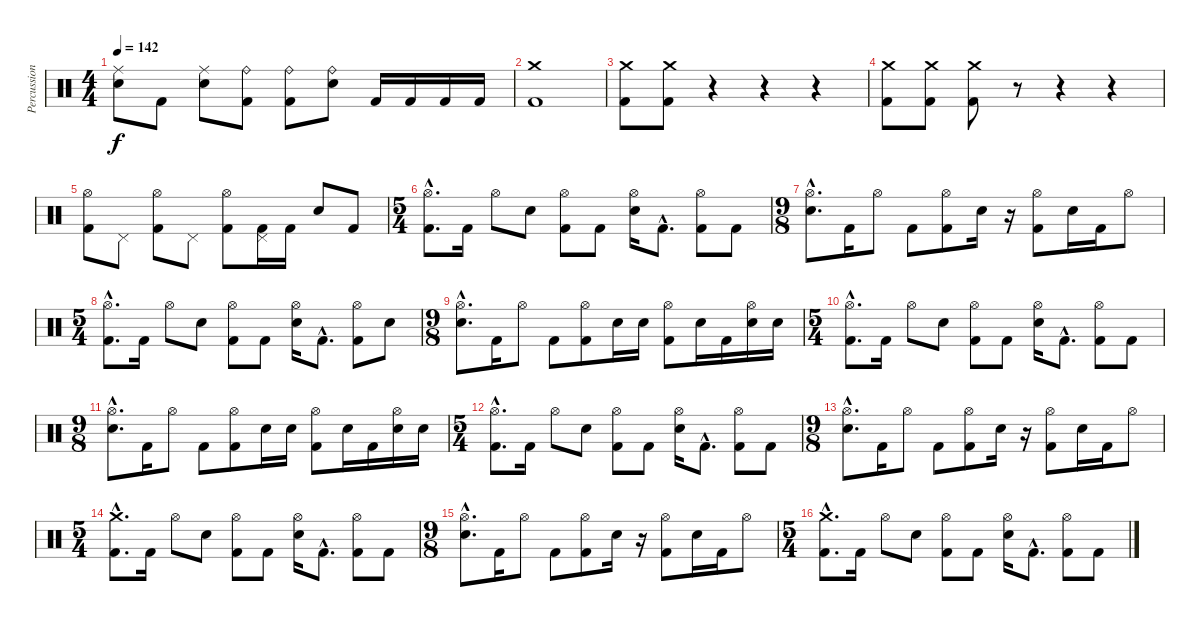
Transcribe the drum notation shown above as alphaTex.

\track ("Percussion" "Percussion") {instrument percussion}
\staff {score}
\articulation defaults
\ts (4 4)
\tempo 142
\clef neutral
\ks c
("Ride (middle)" "Electric Snare (hit)").8{dy f} "Kick (hit) 2".8 ("Ride (middle)" "Electric Snare (hit)").8 ("Ride (bell)" "Kick (hit) 2").8 ("Ride (bell)" "Kick (hit) 2").8 ("Ride (bell)" "Electric Snare (hit)").8 "Kick (hit) 2".16 "Kick (hit) 2".16 "Kick (hit) 2".16 "Kick (hit) 2".16 |
("Crash medium (hit)" "Kick (hit) 2").1 |
("Crash medium (hit)" "Kick (hit) 2").8 ("Crash medium (hit)" "Kick (hit) 2").8 r.4 r.4 r.4 |
("Crash medium (hit)" "Kick (hit) 2").8 ("Crash medium (hit)" "Kick (hit) 2").8 ("Crash medium (hit)" "Kick (hit) 2").8 r.8 r.4 r.4 |
("Hi-Hat (open)" "Kick (hit) 2").8 "Pedal Hi-Hat (hit)".8 ("Hi-Hat (open)" "Kick (hit) 2").8 "Pedal Hi-Hat (hit)".8 ("Hi-Hat (open)" "Kick (hit) 2").8 ("Pedal Hi-Hat (hit)" "Kick (hit) 2").16 "Kick (hit) 2".16 "Electric Snare (hit)".8 "Kick (hit) 2".8 |
\ts (5 4)
("Hi-Hat (open)"{hac} "Kick (hit) 2"{hac}).8{d} "Kick (hit) 2".16 "Hi-Hat (open)".8 "Electric Snare (hit)".8 ("Hi-Hat (open)" "Kick (hit) 2").8 "Kick (hit) 2".8 ("Hi-Hat (open)" "Electric Snare (hit)").16 "Kick (hit) 2"{hac}.8{d} ("Hi-Hat (open)" "Kick (hit) 2").8 "Kick (hit) 2".8 |
\ts (9 8)
("Hi-Hat (open)"{hac} "Electric Snare (hit)"{hac}).8{d} "Kick (hit) 2".16 "Hi-Hat (open)".8 "Kick (hit) 2".8 ("Hi-Hat (open)" "Kick (hit) 2").8 "Electric Snare (hit)".16 r.16 ("Hi-Hat (open)" "Kick (hit) 2").8 "Electric Snare (hit)".16 "Kick (hit) 2".16 "Hi-Hat (open)".8 |
\ts (5 4)
("Hi-Hat (open)"{hac} "Kick (hit) 2"{hac}).8{d} "Kick (hit) 2".16 "Hi-Hat (open)".8 "Electric Snare (hit)".8 ("Hi-Hat (open)" "Kick (hit) 2").8 "Kick (hit) 2".8 ("Hi-Hat (open)" "Electric Snare (hit)").16 "Kick (hit) 2"{hac}.8{d} ("Hi-Hat (open)" "Kick (hit) 2").8 "Electric Snare (hit)".8 |
\ts (9 8)
("Hi-Hat (open)"{hac} "Electric Snare (hit)"{hac}).8{d} "Kick (hit) 2".16 "Hi-Hat (open)".8 "Kick (hit) 2".8 ("Hi-Hat (open)" "Kick (hit) 2").8 "Electric Snare (hit)".16 "Electric Snare (hit)".16 ("Hi-Hat (open)" "Kick (hit) 2").8 "Electric Snare (hit)".16 "Kick (hit) 2".16 ("Hi-Hat (open)" "Electric Snare (hit)").16 "Electric Snare (hit)".16 |
\ts (5 4)
("Hi-Hat (open)"{hac} "Kick (hit) 2"{hac}).8{d} "Kick (hit) 2".16 "Hi-Hat (open)".8 "Electric Snare (hit)".8 ("Hi-Hat (open)" "Kick (hit) 2").8 "Kick (hit) 2".8 ("Hi-Hat (open)" "Electric Snare (hit)").16 "Kick (hit) 2"{hac}.8{d} ("Hi-Hat (open)" "Kick (hit) 2").8 "Kick (hit) 2".8 |
\ts (9 8)
("Hi-Hat (open)"{hac} "Electric Snare (hit)"{hac}).8{d} "Kick (hit) 2".16 "Hi-Hat (open)".8 "Kick (hit) 2".8 ("Hi-Hat (open)" "Kick (hit) 2").8 "Electric Snare (hit)".16 "Electric Snare (hit)".16 ("Hi-Hat (open)" "Kick (hit) 2").8 "Electric Snare (hit)".16 "Kick (hit) 2".16 ("Hi-Hat (open)" "Electric Snare (hit)").16 "Electric Snare (hit)".16 |
\ts (5 4)
("Hi-Hat (open)"{hac} "Kick (hit) 2"{hac}).8{d} "Kick (hit) 2".16 "Hi-Hat (open)".8 "Electric Snare (hit)".8 ("Hi-Hat (open)" "Kick (hit) 2").8 "Kick (hit) 2".8 ("Hi-Hat (open)" "Electric Snare (hit)").16 "Kick (hit) 2"{hac}.8{d} ("Hi-Hat (open)" "Kick (hit) 2").8 "Kick (hit) 2".8 |
\ts (9 8)
("Hi-Hat (open)"{hac} "Electric Snare (hit)"{hac}).8{d} "Kick (hit) 2".16 "Hi-Hat (open)".8 "Kick (hit) 2".8 ("Hi-Hat (open)" "Kick (hit) 2").8 "Electric Snare (hit)".16 r.16 ("Hi-Hat (open)" "Kick (hit) 2").8 "Electric Snare (hit)".16 "Kick (hit) 2".16 "Hi-Hat (open)".8 |
\ts (5 4)
("Crash medium (hit)"{hac} "Kick (hit) 2"{hac}).8{d} "Kick (hit) 2".16 "Hi-Hat (open)".8 "Electric Snare (hit)".8 ("Hi-Hat (open)" "Kick (hit) 2").8 "Kick (hit) 2".8 ("Hi-Hat (open)" "Electric Snare (hit)").16 "Kick (hit) 2"{hac}.8{d} ("Hi-Hat (open)" "Kick (hit) 2").8 "Kick (hit) 2".8 |
\ts (9 8)
("Hi-Hat (open)"{hac} "Electric Snare (hit)"{hac}).8{d} "Kick (hit) 2".16 "Hi-Hat (open)".8 "Kick (hit) 2".8 ("Hi-Hat (open)" "Kick (hit) 2").8 "Electric Snare (hit)".16 r.16 ("Hi-Hat (open)" "Kick (hit) 2").8 "Electric Snare (hit)".16 "Kick (hit) 2".16 "Hi-Hat (open)".8 |
\ts (5 4)
("Crash medium (hit)"{hac} "Kick (hit) 2"{hac}).8{d} "Kick (hit) 2".16 "Hi-Hat (open)".8 "Electric Snare (hit)".8 ("Hi-Hat (open)" "Kick (hit) 2").8 "Kick (hit) 2".8 ("Hi-Hat (open)" "Electric Snare (hit)").16 "Kick (hit) 2"{hac}.8{d} ("Hi-Hat (open)" "Kick (hit) 2").8 "Kick (hit) 2".8
